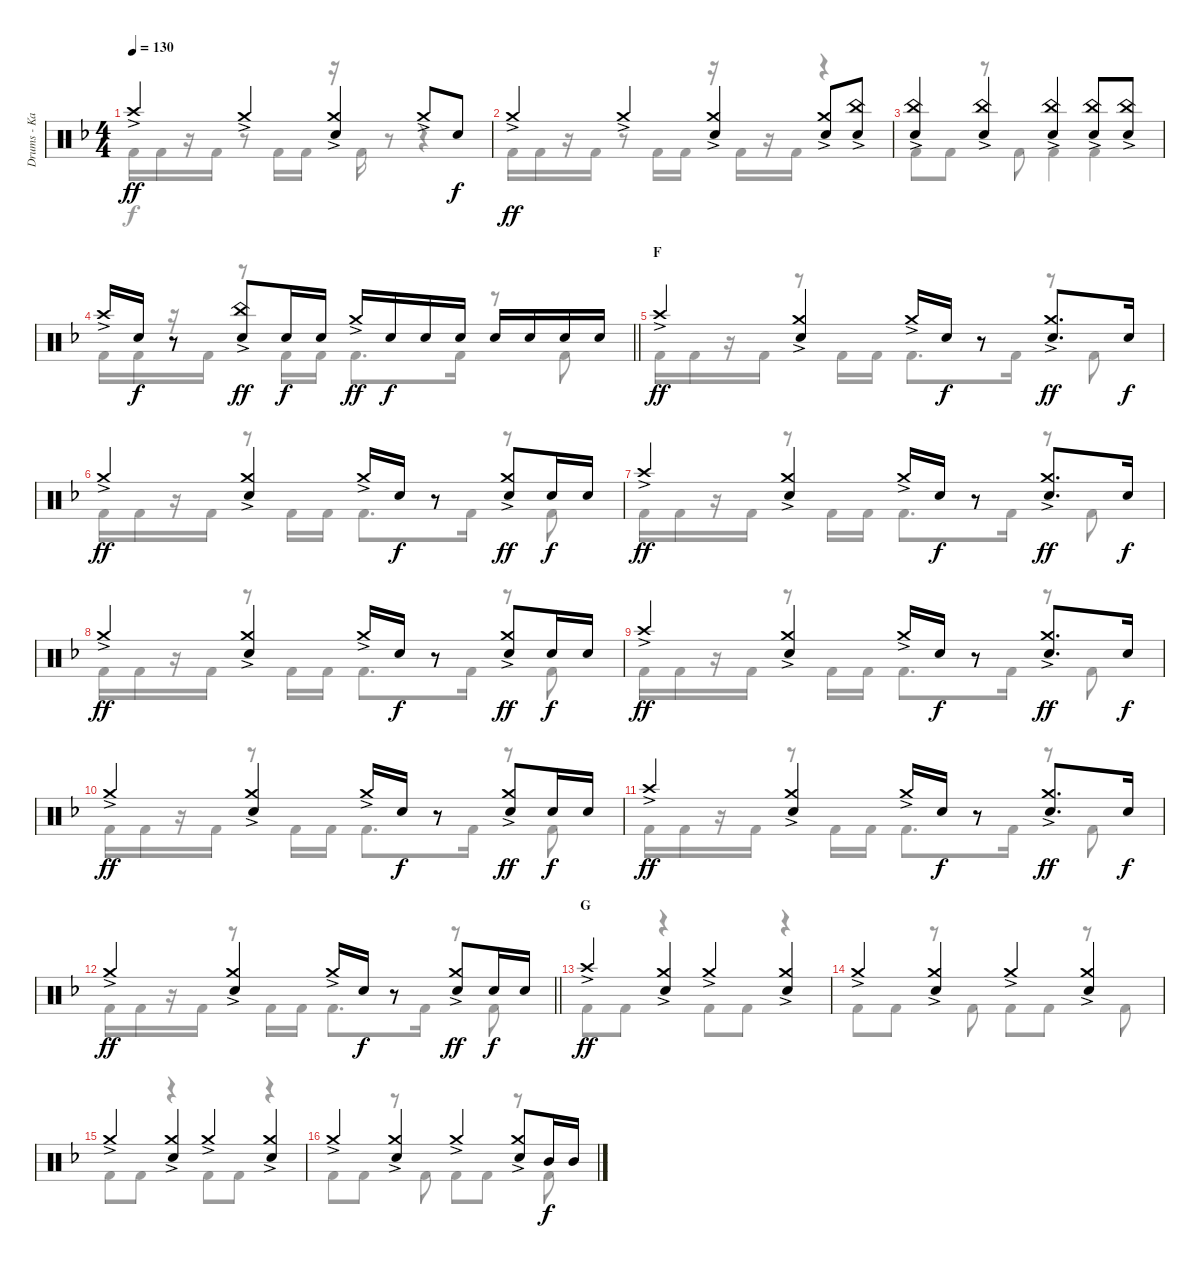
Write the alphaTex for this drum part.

\track ("Drums - Kai" "Drums - Ka") {instrument percussion}
\staff {score}
\articulation defaults
\voice
\ts (4 4)
\tempo 130
\clef neutral
\ks f "Crash high (hit)"{ac}.4{dy ff} "Crash medium (hit)"{ac}.4
("Crash medium (hit)"{ac} "Snare (hit) 2").4 "Crash medium (hit)"{ac}.8 "Snare (hit) 2".8{dy f} |
"Crash medium (hit)"{ac}.4{dy ff} "Crash medium (hit)"{ac}.4 ("Crash medium (hit)"{ac} "Snare (hit) 2").4 ("Crash medium (hit)"{ac} "Snare (hit) 2").8 ("China (hit)"{ac} "Snare (hit) 2").8 |
("China (hit)"{ac} "Snare (hit) 2").4 ("China (hit)"{ac} "Snare (hit) 2").4 ("China (hit)"{ac} "Snare (hit) 2").4 ("China (hit)"{ac} "Snare (hit) 2").8 ("China (hit)"{ac} "Snare (hit) 2").8 |
\barLineRight lightlight "Crash high (hit)"{ac}.16 "Snare (hit) 2".16{dy f}
r.8 ("China (hit)"{ac} "Snare (hit) 2").8{dy ff} "Snare (hit) 2".16{dy f} "Snare (hit) 2".16 "Crash medium (hit)"{ac}.16{dy ff} "Snare (hit) 2".16{dy f} "Snare (hit) 2".16 "Snare (hit) 2".16 "Snare (hit) 2".16 "Snare (hit) 2".16 "Snare (hit) 2".16 "Snare (hit) 2".16 |
\section ("" "F")
"Crash high (hit)"{ac}.4{dy ff} ("Crash medium (hit)"{ac} "Snare (hit) 2").4 "Crash medium (hit)"{ac}.16 "Snare (hit) 2".16{dy f} r.8 ("Crash medium (hit)"{ac} "Snare (hit) 2").8{d dy ff} "Snare (hit) 2".16{dy f} |
"Crash medium (hit)"{ac}.4{dy ff} ("Crash medium (hit)"{ac} "Snare (hit) 2").4 "Crash medium (hit)"{ac}.16 "Snare (hit) 2".16{dy f} r.8 ("Crash medium (hit)"{ac} "Snare (hit) 2").8{dy ff} "Snare (hit) 2".16{dy f} "Snare (hit) 2".16 |
"Crash high (hit)"{ac}.4{dy ff} ("Crash medium (hit)"{ac} "Snare (hit) 2").4 "Crash medium (hit)"{ac}.16 "Snare (hit) 2".16{dy f} r.8 ("Crash medium (hit)"{ac} "Snare (hit) 2").8{d dy ff} "Snare (hit) 2".16{dy f} |
"Crash medium (hit)"{ac}.4{dy ff} ("Crash medium (hit)"{ac} "Snare (hit) 2").4 "Crash medium (hit)"{ac}.16 "Snare (hit) 2".16{dy f} r.8 ("Crash medium (hit)"{ac} "Snare (hit) 2").8{dy ff} "Snare (hit) 2".16{dy f} "Snare (hit) 2".16 |
"Crash high (hit)"{ac}.4{dy ff} ("Crash medium (hit)"{ac} "Snare (hit) 2").4 "Crash medium (hit)"{ac}.16 "Snare (hit) 2".16{dy f} r.8 ("Crash medium (hit)"{ac} "Snare (hit) 2").8{d dy ff} "Snare (hit) 2".16{dy f} |
"Crash medium (hit)"{ac}.4{dy ff} ("Crash medium (hit)"{ac} "Snare (hit) 2").4 "Crash medium (hit)"{ac}.16 "Snare (hit) 2".16{dy f} r.8 ("Crash medium (hit)"{ac} "Snare (hit) 2").8{dy ff} "Snare (hit) 2".16{dy f} "Snare (hit) 2".16 |
"Crash high (hit)"{ac}.4{dy ff} ("Crash medium (hit)"{ac} "Snare (hit) 2").4 "Crash medium (hit)"{ac}.16 "Snare (hit) 2".16{dy f} r.8 ("Crash medium (hit)"{ac} "Snare (hit) 2").8{d dy ff} "Snare (hit) 2".16{dy f} |
\barLineRight lightlight "Crash medium (hit)"{ac}.4{dy ff}
("Crash medium (hit)"{ac} "Snare (hit) 2").4 "Crash medium (hit)"{ac}.16 "Snare (hit) 2".16{dy f} r.8 ("Crash medium (hit)"{ac} "Snare (hit) 2").8{dy ff} "Snare (hit) 2".16{dy f} "Snare (hit) 2".16 |
\section ("" "G")
"Crash high (hit)"{ac}.4{dy ff} ("Crash medium (hit)"{ac} "Snare (hit) 2").4 "Crash medium (hit)"{ac}.4 ("Crash medium (hit)"{ac} "Snare (hit) 2").4 |
"Crash medium (hit)"{ac}.4 ("Crash medium (hit)"{ac} "Snare (hit) 2").4 "Crash medium (hit)"{ac}.4 ("Crash medium (hit)"{ac} "Snare (hit) 2").4 |
"Crash medium (hit)"{ac}.4 ("Crash medium (hit)"{ac} "Snare (hit) 2").4 "Crash medium (hit)"{ac}.4 ("Crash medium (hit)"{ac} "Snare (hit) 2").4 |
"Crash medium (hit)"{ac}.4 ("Crash medium (hit)"{ac} "Snare (hit) 2").4 "Crash medium (hit)"{ac}.4 ("Crash medium (hit)"{ac} "Snare (hit) 2").8 "Mid Tom (hit)".16{dy f} "Mid Tom (hit)".16
\voice
\clef neutral
\ottava regular
\simile none
\ks f "Kick (hit) 2".16{dy f} "Kick (hit) 2".16
r.16 "Kick (hit) 2".16 r.8 "Kick (hit) 2".16 "Kick (hit) 2".16 r.16 "Kick (hit) 2".16 r.8 r.4 |
"Kick (hit) 2".16 "Kick (hit) 2".16 r.16 "Kick (hit) 2".16 r.8 "Kick (hit) 2".16 "Kick (hit) 2".16 r.16 "Kick (hit) 2".16 r.16 "Kick (hit) 2".16 r.4 |
"Kick (hit) 2".8 "Kick (hit) 2".8 r.8 "Kick (hit) 2".8 "Kick (hit) 2".4 "Kick (hit) 2".4 |
\barLineRight lightlight "Kick (hit) 2".16 "Kick (hit) 2".16
r.16 "Kick (hit) 2".16 r.8 "Kick (hit) 2".16 "Kick (hit) 2".16 "Kick (hit) 2".8{d} "Kick (hit) 2".16 r.8 "Kick (hit) 2".8 |
"Kick (hit) 2".16 "Kick (hit) 2".16 r.16 "Kick (hit) 2".16 r.8 "Kick (hit) 2".16 "Kick (hit) 2".16 "Kick (hit) 2".8{d} "Kick (hit) 2".16 r.8 "Kick (hit) 2".8 |
"Kick (hit) 2".16 "Kick (hit) 2".16 r.16 "Kick (hit) 2".16 r.8 "Kick (hit) 2".16 "Kick (hit) 2".16 "Kick (hit) 2".8{d} "Kick (hit) 2".16 r.8 "Kick (hit) 2".8 |
"Kick (hit) 2".16 "Kick (hit) 2".16 r.16 "Kick (hit) 2".16 r.8 "Kick (hit) 2".16 "Kick (hit) 2".16 "Kick (hit) 2".8{d} "Kick (hit) 2".16 r.8 "Kick (hit) 2".8 |
"Kick (hit) 2".16 "Kick (hit) 2".16 r.16 "Kick (hit) 2".16 r.8 "Kick (hit) 2".16 "Kick (hit) 2".16 "Kick (hit) 2".8{d} "Kick (hit) 2".16 r.8 "Kick (hit) 2".8 |
"Kick (hit) 2".16 "Kick (hit) 2".16 r.16 "Kick (hit) 2".16 r.8 "Kick (hit) 2".16 "Kick (hit) 2".16 "Kick (hit) 2".8{d} "Kick (hit) 2".16 r.8 "Kick (hit) 2".8 |
"Kick (hit) 2".16 "Kick (hit) 2".16 r.16 "Kick (hit) 2".16 r.8 "Kick (hit) 2".16 "Kick (hit) 2".16 "Kick (hit) 2".8{d} "Kick (hit) 2".16 r.8 "Kick (hit) 2".8 |
"Kick (hit) 2".16 "Kick (hit) 2".16 r.16 "Kick (hit) 2".16 r.8 "Kick (hit) 2".16 "Kick (hit) 2".16 "Kick (hit) 2".8{d} "Kick (hit) 2".16 r.8 "Kick (hit) 2".8 |
\barLineRight lightlight "Kick (hit) 2".16 "Kick (hit) 2".16
r.16 "Kick (hit) 2".16 r.8 "Kick (hit) 2".16 "Kick (hit) 2".16 "Kick (hit) 2".8{d} "Kick (hit) 2".16 r.8 "Kick (hit) 2".8 |
"Kick (hit) 2".8 "Kick (hit) 2".8 r.4 "Kick (hit) 2".8 "Kick (hit) 2".8 r.4 |
"Kick (hit) 2".8 "Kick (hit) 2".8 r.8 "Kick (hit) 2".8 "Kick (hit) 2".8 "Kick (hit) 2".8 r.8 "Kick (hit) 2".8 |
"Kick (hit) 2".8 "Kick (hit) 2".8 r.4 "Kick (hit) 2".8 "Kick (hit) 2".8 r.4 |
"Kick (hit) 2".8 "Kick (hit) 2".8 r.8 "Kick (hit) 2".8 "Kick (hit) 2".8 "Kick (hit) 2".8 r.8 "Kick (hit) 2".8
